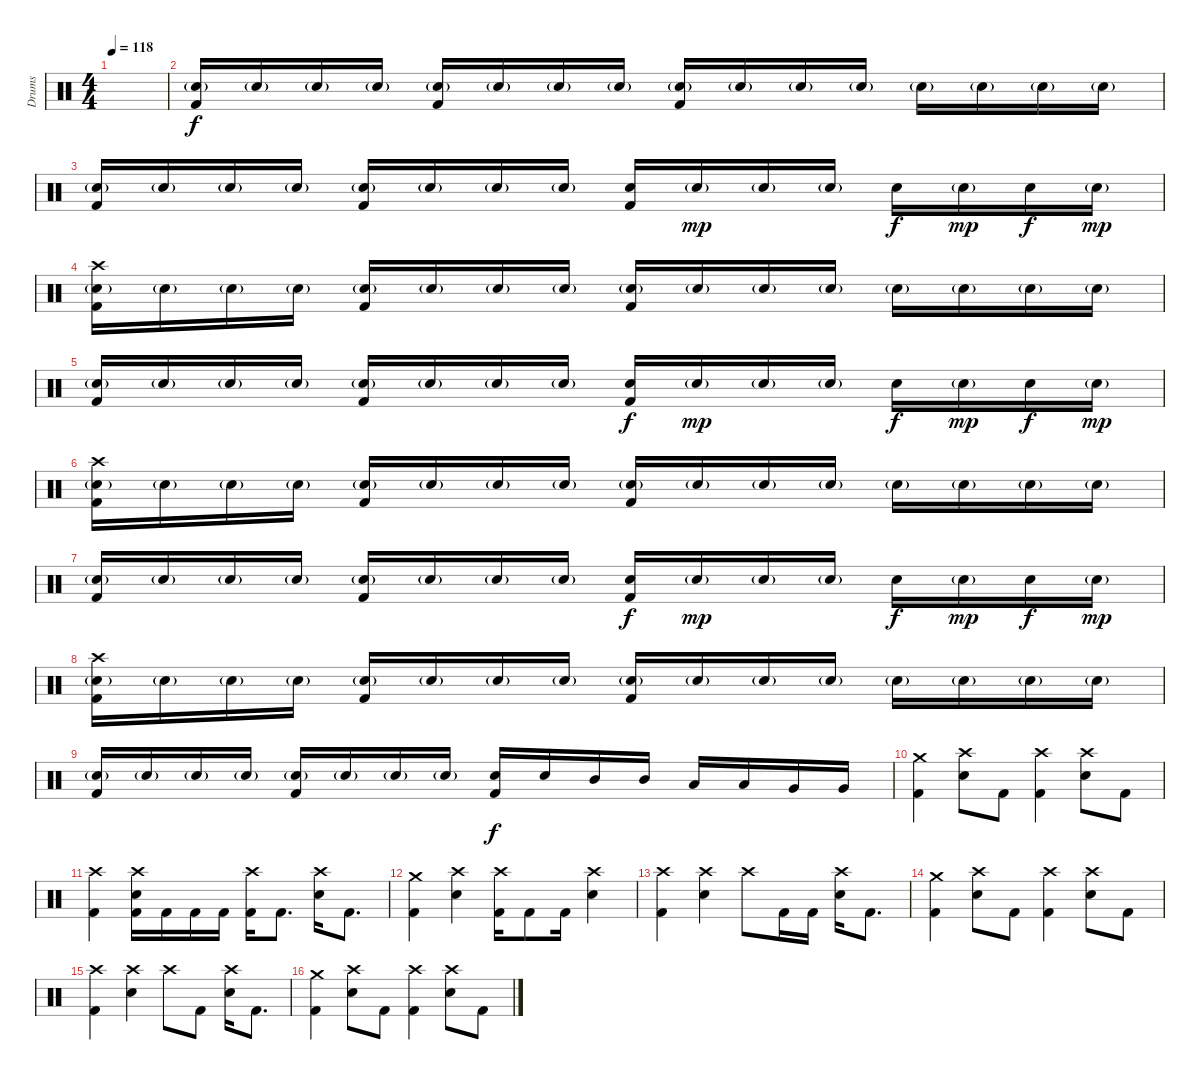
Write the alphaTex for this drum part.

\track ("Drums" "Drums") {instrument percussion}
\staff {score}
\articulation defaults
\ts (4 4)
\tempo 118
\clef neutral
\ks c
|
("Snare (hit) 2"{g} "Kick (hit) 2").16 "Snare (hit) 2"{g}.16 "Snare (hit) 2"{g}.16 "Snare (hit) 2"{g}.16 ("Snare (hit) 2"{g} "Kick (hit) 2").16 "Snare (hit) 2"{g}.16 "Snare (hit) 2"{g}.16 "Snare (hit) 2"{g}.16 ("Snare (hit) 2"{g} "Kick (hit) 2").16 "Snare (hit) 2"{g}.16 "Snare (hit) 2"{g}.16 "Snare (hit) 2"{g}.16 "Snare (hit) 2"{g}.16 "Snare (hit) 2"{g}.16 "Snare (hit) 2"{g}.16 "Snare (hit) 2"{g}.16 |
("Snare (hit) 2"{g} "Kick (hit) 2").16 "Snare (hit) 2"{g}.16 "Snare (hit) 2"{g}.16 "Snare (hit) 2"{g}.16 ("Snare (hit) 2"{g} "Kick (hit) 2").16 "Snare (hit) 2"{g}.16 "Snare (hit) 2"{g}.16 "Snare (hit) 2"{g}.16 ("Snare (hit) 2" "Kick (hit) 2").16{dy f} "Snare (hit) 2"{g}.16{dy mp} "Snare (hit) 2"{g}.16 "Snare (hit) 2"{g}.16 "Snare (hit) 2".16{dy f} "Snare (hit) 2"{g}.16{dy mp} "Snare (hit) 2".16{dy f} "Snare (hit) 2"{g}.16{dy mp} |
("Crash high (hit)" "Snare (hit) 2"{g} "Kick (hit) 2").16 "Snare (hit) 2"{g}.16 "Snare (hit) 2"{g}.16 "Snare (hit) 2"{g}.16 ("Snare (hit) 2"{g} "Kick (hit) 2").16 "Snare (hit) 2"{g}.16 "Snare (hit) 2"{g}.16 "Snare (hit) 2"{g}.16 ("Snare (hit) 2"{g} "Kick (hit) 2").16 "Snare (hit) 2"{g}.16 "Snare (hit) 2"{g}.16 "Snare (hit) 2"{g}.16 "Snare (hit) 2"{g}.16 "Snare (hit) 2"{g}.16 "Snare (hit) 2"{g}.16 "Snare (hit) 2"{g}.16 |
("Snare (hit) 2"{g} "Kick (hit) 2").16 "Snare (hit) 2"{g}.16 "Snare (hit) 2"{g}.16 "Snare (hit) 2"{g}.16 ("Snare (hit) 2"{g} "Kick (hit) 2").16 "Snare (hit) 2"{g}.16 "Snare (hit) 2"{g}.16 "Snare (hit) 2"{g}.16 ("Snare (hit) 2" "Kick (hit) 2").16{dy f} "Snare (hit) 2"{g}.16{dy mp} "Snare (hit) 2"{g}.16 "Snare (hit) 2"{g}.16 "Snare (hit) 2".16{dy f} "Snare (hit) 2"{g}.16{dy mp} "Snare (hit) 2".16{dy f} "Snare (hit) 2"{g}.16{dy mp} |
("Crash high (hit)" "Snare (hit) 2"{g} "Kick (hit) 2").16 "Snare (hit) 2"{g}.16 "Snare (hit) 2"{g}.16 "Snare (hit) 2"{g}.16 ("Snare (hit) 2"{g} "Kick (hit) 2").16 "Snare (hit) 2"{g}.16 "Snare (hit) 2"{g}.16 "Snare (hit) 2"{g}.16 ("Snare (hit) 2"{g} "Kick (hit) 2").16 "Snare (hit) 2"{g}.16 "Snare (hit) 2"{g}.16 "Snare (hit) 2"{g}.16 "Snare (hit) 2"{g}.16 "Snare (hit) 2"{g}.16 "Snare (hit) 2"{g}.16 "Snare (hit) 2"{g}.16 |
("Snare (hit) 2"{g} "Kick (hit) 2").16 "Snare (hit) 2"{g}.16 "Snare (hit) 2"{g}.16 "Snare (hit) 2"{g}.16 ("Snare (hit) 2"{g} "Kick (hit) 2").16 "Snare (hit) 2"{g}.16 "Snare (hit) 2"{g}.16 "Snare (hit) 2"{g}.16 ("Snare (hit) 2" "Kick (hit) 2").16{dy f} "Snare (hit) 2"{g}.16{dy mp} "Snare (hit) 2"{g}.16 "Snare (hit) 2"{g}.16 "Snare (hit) 2".16{dy f} "Snare (hit) 2"{g}.16{dy mp} "Snare (hit) 2".16{dy f} "Snare (hit) 2"{g}.16{dy mp} |
("Crash high (hit)" "Snare (hit) 2"{g} "Kick (hit) 2").16 "Snare (hit) 2"{g}.16 "Snare (hit) 2"{g}.16 "Snare (hit) 2"{g}.16 ("Snare (hit) 2"{g} "Kick (hit) 2").16 "Snare (hit) 2"{g}.16 "Snare (hit) 2"{g}.16 "Snare (hit) 2"{g}.16 ("Snare (hit) 2"{g} "Kick (hit) 2").16 "Snare (hit) 2"{g}.16 "Snare (hit) 2"{g}.16 "Snare (hit) 2"{g}.16 "Snare (hit) 2"{g}.16 "Snare (hit) 2"{g}.16 "Snare (hit) 2"{g}.16 "Snare (hit) 2"{g}.16 |
("Snare (hit) 2"{g} "Kick (hit) 2").16 "Snare (hit) 2"{g}.16 "Snare (hit) 2"{g}.16 "Snare (hit) 2"{g}.16 ("Snare (hit) 2"{g} "Kick (hit) 2").16 "Snare (hit) 2"{g}.16 "Snare (hit) 2"{g}.16 "Snare (hit) 2"{g}.16 ("Snare (hit) 2" "Kick (hit) 2").16{dy f} "Snare (hit) 2".16 "Mid Tom (hit)".16 "Mid Tom (hit)".16 "Low Tom (hit)".16 "Low Tom (hit)".16 "Very Low Tom (hit)".16 "Very Low Tom (hit)".16 |
("Crash medium (hit)" "Kick (hit) 2").4 ("Crash high (hit)" "Snare (hit) 2").8 "Kick (hit) 2".8 ("Crash high (hit)" "Kick (hit) 2").4 ("Crash high (hit)" "Snare (hit) 2").8 "Kick (hit) 2".8 |
("Crash high (hit)" "Kick (hit) 2").4 ("Crash high (hit)" "Snare (hit) 2" "Kick (hit) 2").16 "Kick (hit) 2".16 "Kick (hit) 2".16 "Kick (hit) 2".16 ("Crash high (hit)" "Kick (hit) 2").16 "Kick (hit) 2".8{d} ("Crash high (hit)" "Snare (hit) 2").16 "Kick (hit) 2".8{d} |
("Crash medium (hit)" "Kick (hit) 2").4 ("Crash high (hit)" "Snare (hit) 2").4 ("Crash high (hit)" "Kick (hit) 2").16 "Kick (hit) 2".8 "Kick (hit) 2".16 ("Crash high (hit)" "Snare (hit) 2").4 |
("Crash high (hit)" "Kick (hit) 2").4 ("Crash high (hit)" "Snare (hit) 2").4 "Crash high (hit)".8 "Kick (hit) 2".16 "Kick (hit) 2".16 ("Crash high (hit)" "Snare (hit) 2").16 "Kick (hit) 2".8{d} |
("Crash medium (hit)" "Kick (hit) 2").4 ("Crash high (hit)" "Snare (hit) 2").8 "Kick (hit) 2".8 ("Crash high (hit)" "Kick (hit) 2").4 ("Crash high (hit)" "Snare (hit) 2").8 "Kick (hit) 2".8 |
("Crash high (hit)" "Kick (hit) 2").4 ("Crash high (hit)" "Snare (hit) 2").4 "Crash high (hit)".8 "Kick (hit) 2".8 ("Crash high (hit)" "Snare (hit) 2").16 "Kick (hit) 2".8{d} |
("Crash medium (hit)" "Kick (hit) 2").4 ("Crash high (hit)" "Snare (hit) 2").8 "Kick (hit) 2".8 ("Crash high (hit)" "Kick (hit) 2").4 ("Crash high (hit)" "Snare (hit) 2").8 "Kick (hit) 2".8
